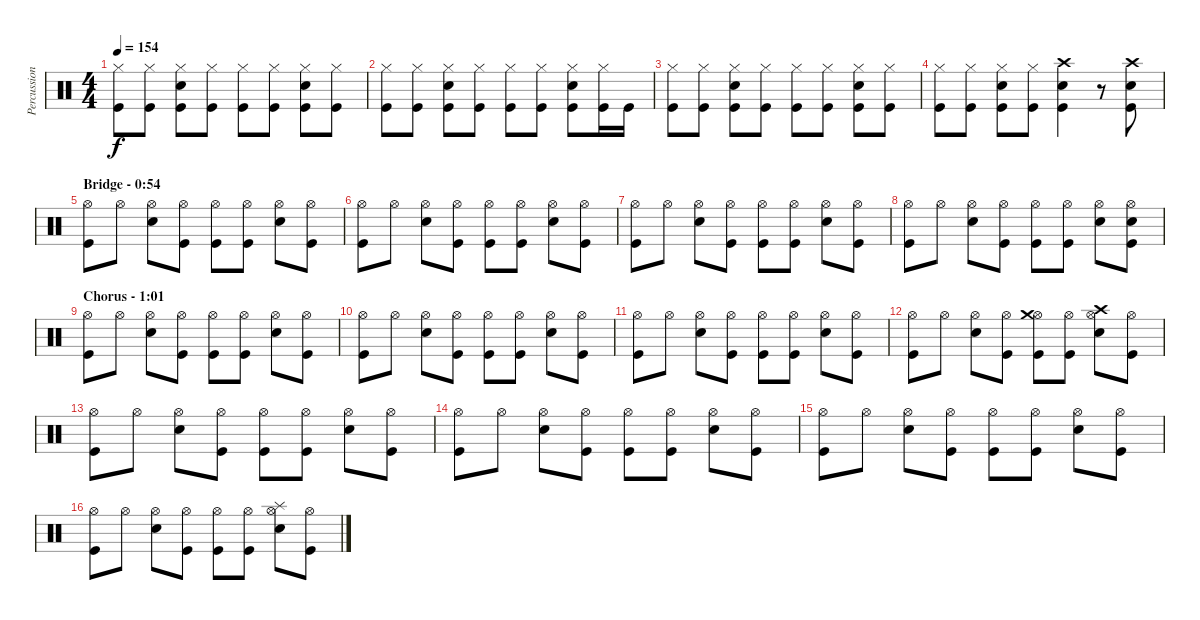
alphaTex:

\track ("Percussioni" "Percussion") {instrument percussion}
\staff {score}
\articulation defaults
\ts (4 4)
\tempo 154
\clef neutral
\ks c
("Hi-Hat (closed)" "Kick (hit)").8{dy f} ("Hi-Hat (closed)" "Kick (hit)").8 ("Hi-Hat (closed)" "Electric Snare (hit)" "Kick (hit)").8 ("Hi-Hat (closed)" "Kick (hit)").8 ("Hi-Hat (closed)" "Kick (hit)").8 ("Hi-Hat (closed)" "Kick (hit)").8 ("Hi-Hat (closed)" "Electric Snare (hit)" "Kick (hit)").8 ("Hi-Hat (closed)" "Kick (hit)").8 |
("Hi-Hat (closed)" "Kick (hit)").8 ("Hi-Hat (closed)" "Kick (hit)").8 ("Hi-Hat (closed)" "Electric Snare (hit)" "Kick (hit)").8 ("Hi-Hat (closed)" "Kick (hit)").8 ("Hi-Hat (closed)" "Kick (hit)").8 ("Hi-Hat (closed)" "Kick (hit)").8 ("Hi-Hat (closed)" "Electric Snare (hit)" "Kick (hit)").8 ("Hi-Hat (closed)" "Kick (hit)").16 "Kick (hit)".16 |
("Hi-Hat (closed)" "Kick (hit)").8 ("Hi-Hat (closed)" "Kick (hit)").8 ("Hi-Hat (closed)" "Electric Snare (hit)" "Kick (hit)").8 ("Hi-Hat (closed)" "Kick (hit)").8 ("Hi-Hat (closed)" "Kick (hit)").8 ("Hi-Hat (closed)" "Kick (hit)").8 ("Hi-Hat (closed)" "Electric Snare (hit)" "Kick (hit)").8 ("Hi-Hat (closed)" "Kick (hit)").8 |
("Hi-Hat (closed)" "Kick (hit)").8 ("Hi-Hat (closed)" "Kick (hit)").8 ("Hi-Hat (closed)" "Electric Snare (hit)" "Kick (hit)").8 ("Hi-Hat (closed)" "Kick (hit)").8 ("Crash high (hit)" "Electric Snare (hit)" "Kick (hit)").4 r.8 ("Crash high (hit)" "Electric Snare (hit)" "Kick (hit)").8 |
\section ("" "Bridge - 0:54")
("Hi-Hat (open)" "Kick (hit)").8 "Hi-Hat (open)".8 ("Hi-Hat (open)" "Electric Snare (hit)").8 ("Hi-Hat (open)" "Kick (hit)").8 ("Hi-Hat (open)" "Kick (hit)").8 ("Hi-Hat (open)" "Kick (hit)").8 ("Hi-Hat (open)" "Electric Snare (hit)").8 ("Hi-Hat (open)" "Kick (hit)").8 |
("Hi-Hat (open)" "Kick (hit)").8 "Hi-Hat (open)".8 ("Hi-Hat (open)" "Electric Snare (hit)").8 ("Hi-Hat (open)" "Kick (hit)").8 ("Hi-Hat (open)" "Kick (hit)").8 ("Hi-Hat (open)" "Kick (hit)").8 ("Hi-Hat (open)" "Electric Snare (hit)").8 ("Hi-Hat (open)" "Kick (hit)").8 |
("Hi-Hat (open)" "Kick (hit)").8 "Hi-Hat (open)".8 ("Hi-Hat (open)" "Electric Snare (hit)").8 ("Hi-Hat (open)" "Kick (hit)").8 ("Hi-Hat (open)" "Kick (hit)").8 ("Hi-Hat (open)" "Kick (hit)").8 ("Hi-Hat (open)" "Electric Snare (hit)").8 ("Hi-Hat (open)" "Kick (hit)").8 |
("Hi-Hat (open)" "Kick (hit)").8 "Hi-Hat (open)".8 ("Hi-Hat (open)" "Electric Snare (hit)").8 ("Hi-Hat (open)" "Kick (hit)").8 ("Hi-Hat (open)" "Kick (hit)").8 ("Hi-Hat (open)" "Kick (hit)").8 ("Hi-Hat (open)" "Electric Snare (hit)").8 ("Hi-Hat (open)" "Electric Snare (hit)" "Kick (hit)").8 |
\section ("" "Chorus - 1:01")
("Hi-Hat (open)" "Kick (hit)").8 "Hi-Hat (open)".8 ("Hi-Hat (open)" "Electric Snare (hit)").8 ("Hi-Hat (open)" "Kick (hit)").8 ("Hi-Hat (open)" "Kick (hit)").8 ("Hi-Hat (open)" "Kick (hit)").8 ("Hi-Hat (open)" "Electric Snare (hit)").8 ("Hi-Hat (open)" "Kick (hit)").8 |
("Hi-Hat (open)" "Kick (hit)").8 "Hi-Hat (open)".8 ("Hi-Hat (open)" "Electric Snare (hit)").8 ("Hi-Hat (open)" "Kick (hit)").8 ("Hi-Hat (open)" "Kick (hit)").8 ("Hi-Hat (open)" "Kick (hit)").8 ("Hi-Hat (open)" "Electric Snare (hit)").8 ("Hi-Hat (open)" "Kick (hit)").8 |
("Hi-Hat (open)" "Kick (hit)").8 "Hi-Hat (open)".8 ("Hi-Hat (open)" "Electric Snare (hit)").8 ("Hi-Hat (open)" "Kick (hit)").8 ("Hi-Hat (open)" "Kick (hit)").8 ("Hi-Hat (open)" "Kick (hit)").8 ("Hi-Hat (open)" "Electric Snare (hit)").8 ("Hi-Hat (open)" "Kick (hit)").8 |
("Hi-Hat (open)" "Kick (hit)").8 "Hi-Hat (open)".8 ("Hi-Hat (open)" "Electric Snare (hit)").8 ("Hi-Hat (open)" "Kick (hit)").8 ("Hi-Hat (open)" "Crash medium (hit)" "Kick (hit)").8 ("Hi-Hat (open)" "Kick (hit)").8 ("Hi-Hat (open)" "Crash high (hit)" "Electric Snare (hit)").8 ("Hi-Hat (open)" "Kick (hit)").8 |
("Hi-Hat (open)" "Kick (hit)").8 "Hi-Hat (open)".8 ("Hi-Hat (open)" "Electric Snare (hit)").8 ("Hi-Hat (open)" "Kick (hit)").8 ("Hi-Hat (open)" "Kick (hit)").8 ("Hi-Hat (open)" "Kick (hit)").8 ("Hi-Hat (open)" "Electric Snare (hit)").8 ("Hi-Hat (open)" "Kick (hit)").8 |
("Hi-Hat (open)" "Kick (hit)").8 "Hi-Hat (open)".8 ("Hi-Hat (open)" "Electric Snare (hit)").8 ("Hi-Hat (open)" "Kick (hit)").8 ("Hi-Hat (open)" "Kick (hit)").8 ("Hi-Hat (open)" "Kick (hit)").8 ("Hi-Hat (open)" "Electric Snare (hit)").8 ("Hi-Hat (open)" "Kick (hit)").8 |
("Hi-Hat (open)" "Kick (hit)").8 "Hi-Hat (open)".8 ("Hi-Hat (open)" "Electric Snare (hit)").8 ("Hi-Hat (open)" "Kick (hit)").8 ("Hi-Hat (open)" "Kick (hit)").8 ("Hi-Hat (open)" "Kick (hit)").8 ("Hi-Hat (open)" "Electric Snare (hit)").8 ("Hi-Hat (open)" "Kick (hit)").8 |
("Hi-Hat (open)" "Kick (hit)").8 "Hi-Hat (open)".8 ("Hi-Hat (open)" "Electric Snare (hit)").8 ("Hi-Hat (open)" "Kick (hit)").8 ("Hi-Hat (open)" "Kick (hit)").8 ("Hi-Hat (open)" "Kick (hit)").8 ("Hi-Hat (open)" "Splash (hit)" "Electric Snare (hit)").8 ("Hi-Hat (open)" "Kick (hit)").8
